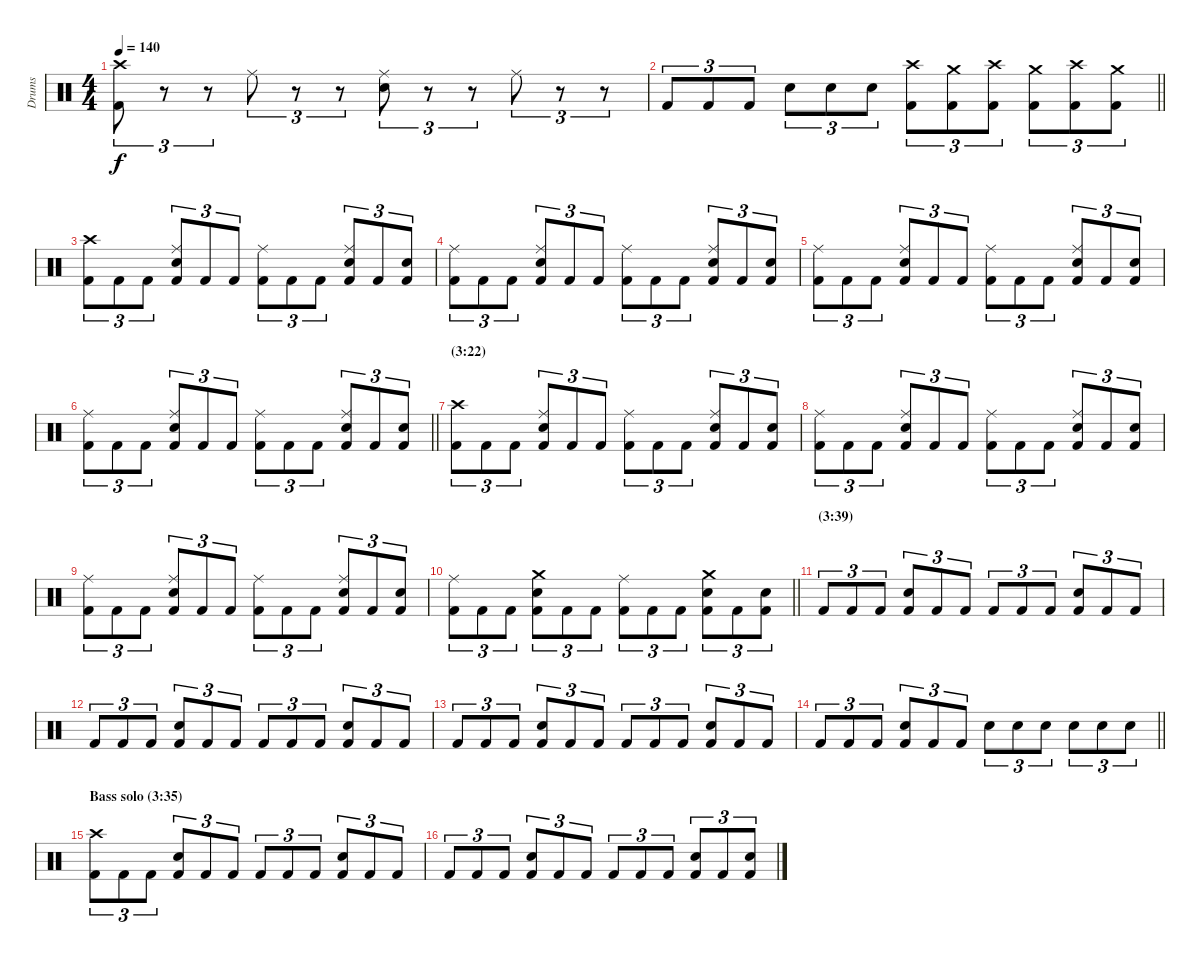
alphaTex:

\track ("Drums" "Drums") {instrument percussion}
\staff {score}
\articulation defaults
\ts (4 4)
\tempo 140
\clef neutral
\ks c
("Crash high (hit)" "Kick (hit) 2").8{tu (3 2) dy f} r.8{tu (3 2)} r.8{tu (3 2)} "Ride (middle)".8{tu (3 2)} r.8{tu (3 2)} r.8{tu (3 2)} ("Ride (middle)" "Snare (hit) 2").8{tu (3 2)} r.8{tu (3 2)} r.8{tu (3 2)} "Ride (middle)".8{tu (3 2)} r.8{tu (3 2)} r.8{tu (3 2)} |
\barLineRight lightlight "Kick (hit) 2".8{tu (3 2)} "Kick (hit) 2".8{tu (3 2)} "Kick (hit) 2".8{tu (3 2)} "Snare (hit) 2".8{tu (3 2)} "Snare (hit) 2".8{tu (3 2)} "Snare (hit) 2".8{tu (3 2)}
("Crash high (hit)" "Kick (hit) 2").8{tu (3 2)} ("Crash medium (hit)" "Kick (hit) 2").8{tu (3 2)} ("Crash high (hit)" "Kick (hit) 2").8{tu (3 2)} ("Crash medium (hit)" "Kick (hit) 2").8{tu (3 2)} ("Crash high (hit)" "Kick (hit) 2").8{tu (3 2)} ("Crash medium (hit)" "Kick (hit) 2").8{tu (3 2)} |
\section ("" "")
("Crash high (hit)" "Kick (hit) 2").8{tu (3 2)} "Kick (hit) 2".8{tu (3 2)} "Kick (hit) 2".8{tu (3 2)} ("Ride (middle)" "Snare (hit) 2" "Kick (hit) 2").8{tu (3 2)} "Kick (hit) 2".8{tu (3 2)} "Kick (hit) 2".8{tu (3 2)} ("Ride (middle)" "Kick (hit) 2").8{tu (3 2)} "Kick (hit) 2".8{tu (3 2)} "Kick (hit) 2".8{tu (3 2)} ("Ride (middle)" "Snare (hit) 2" "Kick (hit) 2").8{tu (3 2)} "Kick (hit) 2".8{tu (3 2)} ("Snare (hit) 2" "Kick (hit) 2").8{tu (3 2)} |
("Ride (middle)" "Kick (hit) 2").8{tu (3 2)} "Kick (hit) 2".8{tu (3 2)} "Kick (hit) 2".8{tu (3 2)} ("Ride (middle)" "Snare (hit) 2" "Kick (hit) 2").8{tu (3 2)} "Kick (hit) 2".8{tu (3 2)} "Kick (hit) 2".8{tu (3 2)} ("Ride (middle)" "Kick (hit) 2").8{tu (3 2)} "Kick (hit) 2".8{tu (3 2)} "Kick (hit) 2".8{tu (3 2)} ("Ride (middle)" "Snare (hit) 2" "Kick (hit) 2").8{tu (3 2)} "Kick (hit) 2".8{tu (3 2)} ("Snare (hit) 2" "Kick (hit) 2").8{tu (3 2)} |
("Ride (middle)" "Kick (hit) 2").8{tu (3 2)} "Kick (hit) 2".8{tu (3 2)} "Kick (hit) 2".8{tu (3 2)} ("Ride (middle)" "Snare (hit) 2" "Kick (hit) 2").8{tu (3 2)} "Kick (hit) 2".8{tu (3 2)} "Kick (hit) 2".8{tu (3 2)} ("Ride (middle)" "Kick (hit) 2").8{tu (3 2)} "Kick (hit) 2".8{tu (3 2)} "Kick (hit) 2".8{tu (3 2)} ("Ride (middle)" "Snare (hit) 2" "Kick (hit) 2").8{tu (3 2)} "Kick (hit) 2".8{tu (3 2)} ("Snare (hit) 2" "Kick (hit) 2").8{tu (3 2)} |
\barLineRight lightlight
("Ride (middle)" "Kick (hit) 2").8{tu (3 2)} "Kick (hit) 2".8{tu (3 2)} "Kick (hit) 2".8{tu (3 2)} ("Ride (middle)" "Snare (hit) 2" "Kick (hit) 2").8{tu (3 2)} "Kick (hit) 2".8{tu (3 2)} "Kick (hit) 2".8{tu (3 2)} ("Ride (middle)" "Kick (hit) 2").8{tu (3 2)} "Kick (hit) 2".8{tu (3 2)} "Kick (hit) 2".8{tu (3 2)} ("Ride (middle)" "Snare (hit) 2" "Kick (hit) 2").8{tu (3 2)} "Kick (hit) 2".8{tu (3 2)} ("Snare (hit) 2" "Kick (hit) 2").8{tu (3 2)} |
\section ("" "(3:22)")
("Crash high (hit)" "Kick (hit) 2").8{tu (3 2)} "Kick (hit) 2".8{tu (3 2)} "Kick (hit) 2".8{tu (3 2)} ("Ride (middle)" "Snare (hit) 2" "Kick (hit) 2").8{tu (3 2)} "Kick (hit) 2".8{tu (3 2)} "Kick (hit) 2".8{tu (3 2)} ("Ride (middle)" "Kick (hit) 2").8{tu (3 2)} "Kick (hit) 2".8{tu (3 2)} "Kick (hit) 2".8{tu (3 2)} ("Ride (middle)" "Snare (hit) 2" "Kick (hit) 2").8{tu (3 2)} "Kick (hit) 2".8{tu (3 2)} ("Snare (hit) 2" "Kick (hit) 2").8{tu (3 2)} |
("Ride (middle)" "Kick (hit) 2").8{tu (3 2)} "Kick (hit) 2".8{tu (3 2)} "Kick (hit) 2".8{tu (3 2)} ("Ride (middle)" "Snare (hit) 2" "Kick (hit) 2").8{tu (3 2)} "Kick (hit) 2".8{tu (3 2)} "Kick (hit) 2".8{tu (3 2)} ("Ride (middle)" "Kick (hit) 2").8{tu (3 2)} "Kick (hit) 2".8{tu (3 2)} "Kick (hit) 2".8{tu (3 2)} ("Ride (middle)" "Snare (hit) 2" "Kick (hit) 2").8{tu (3 2)} "Kick (hit) 2".8{tu (3 2)} ("Snare (hit) 2" "Kick (hit) 2").8{tu (3 2)} |
("Ride (middle)" "Kick (hit) 2").8{tu (3 2)} "Kick (hit) 2".8{tu (3 2)} "Kick (hit) 2".8{tu (3 2)} ("Ride (middle)" "Snare (hit) 2" "Kick (hit) 2").8{tu (3 2)} "Kick (hit) 2".8{tu (3 2)} "Kick (hit) 2".8{tu (3 2)} ("Ride (middle)" "Kick (hit) 2").8{tu (3 2)} "Kick (hit) 2".8{tu (3 2)} "Kick (hit) 2".8{tu (3 2)} ("Ride (middle)" "Snare (hit) 2" "Kick (hit) 2").8{tu (3 2)} "Kick (hit) 2".8{tu (3 2)} ("Snare (hit) 2" "Kick (hit) 2").8{tu (3 2)} |
\barLineRight lightlight
("Ride (middle)" "Kick (hit) 2").8{tu (3 2)} "Kick (hit) 2".8{tu (3 2)} "Kick (hit) 2".8{tu (3 2)} ("Crash medium (hit)" "Snare (hit) 2" "Kick (hit) 2").8{tu (3 2)} "Kick (hit) 2".8{tu (3 2)} "Kick (hit) 2".8{tu (3 2)} ("Ride (middle)" "Kick (hit) 2").8{tu (3 2)} "Kick (hit) 2".8{tu (3 2)} "Kick (hit) 2".8{tu (3 2)} ("Crash medium (hit)" "Snare (hit) 2" "Kick (hit) 2").8{tu (3 2)} "Kick (hit) 2".8{tu (3 2)} ("Snare (hit) 2" "Kick (hit) 2").8{tu (3 2)} |
\section ("" "(3:39)")
"Kick (hit) 2".8{tu (3 2)} "Kick (hit) 2".8{tu (3 2)} "Kick (hit) 2".8{tu (3 2)} ("Snare (hit) 2" "Kick (hit) 2").8{tu (3 2)} "Kick (hit) 2".8{tu (3 2)} "Kick (hit) 2".8{tu (3 2)} "Kick (hit) 2".8{tu (3 2)} "Kick (hit) 2".8{tu (3 2)} "Kick (hit) 2".8{tu (3 2)} ("Snare (hit) 2" "Kick (hit) 2").8{tu (3 2)} "Kick (hit) 2".8{tu (3 2)} "Kick (hit) 2".8{tu (3 2)} |
"Kick (hit) 2".8{tu (3 2)} "Kick (hit) 2".8{tu (3 2)} "Kick (hit) 2".8{tu (3 2)} ("Snare (hit) 2" "Kick (hit) 2").8{tu (3 2)} "Kick (hit) 2".8{tu (3 2)} "Kick (hit) 2".8{tu (3 2)} "Kick (hit) 2".8{tu (3 2)} "Kick (hit) 2".8{tu (3 2)} "Kick (hit) 2".8{tu (3 2)} ("Snare (hit) 2" "Kick (hit) 2").8{tu (3 2)} "Kick (hit) 2".8{tu (3 2)} "Kick (hit) 2".8{tu (3 2)} |
"Kick (hit) 2".8{tu (3 2)} "Kick (hit) 2".8{tu (3 2)} "Kick (hit) 2".8{tu (3 2)} ("Snare (hit) 2" "Kick (hit) 2").8{tu (3 2)} "Kick (hit) 2".8{tu (3 2)} "Kick (hit) 2".8{tu (3 2)} "Kick (hit) 2".8{tu (3 2)} "Kick (hit) 2".8{tu (3 2)} "Kick (hit) 2".8{tu (3 2)} ("Snare (hit) 2" "Kick (hit) 2").8{tu (3 2)} "Kick (hit) 2".8{tu (3 2)} "Kick (hit) 2".8{tu (3 2)} |
\barLineRight lightlight "Kick (hit) 2".8{tu (3 2)} "Kick (hit) 2".8{tu (3 2)} "Kick (hit) 2".8{tu (3 2)}
("Snare (hit) 2" "Kick (hit) 2").8{tu (3 2)} "Kick (hit) 2".8{tu (3 2)} "Kick (hit) 2".8{tu (3 2)} "Snare (hit) 2".8{tu (3 2)} "Snare (hit) 2".8{tu (3 2)} "Snare (hit) 2".8{tu (3 2)} "Snare (hit) 2".8{tu (3 2)} "Snare (hit) 2".8{tu (3 2)} "Snare (hit) 2".8{tu (3 2)} |
\section ("" "Bass solo (3:35)")
("Crash high (hit)" "Kick (hit) 2").8{tu (3 2)} "Kick (hit) 2".8{tu (3 2)} "Kick (hit) 2".8{tu (3 2)} ("Snare (hit) 2" "Kick (hit) 2").8{tu (3 2)} "Kick (hit) 2".8{tu (3 2)} "Kick (hit) 2".8{tu (3 2)} "Kick (hit) 2".8{tu (3 2)} "Kick (hit) 2".8{tu (3 2)} "Kick (hit) 2".8{tu (3 2)} ("Snare (hit) 2" "Kick (hit) 2").8{tu (3 2)} "Kick (hit) 2".8{tu (3 2)} "Kick (hit) 2".8{tu (3 2)} |
"Kick (hit) 2".8{tu (3 2)} "Kick (hit) 2".8{tu (3 2)} "Kick (hit) 2".8{tu (3 2)} ("Snare (hit) 2" "Kick (hit) 2").8{tu (3 2)} "Kick (hit) 2".8{tu (3 2)} "Kick (hit) 2".8{tu (3 2)} "Kick (hit) 2".8{tu (3 2)} "Kick (hit) 2".8{tu (3 2)} "Kick (hit) 2".8{tu (3 2)} ("Snare (hit) 2" "Kick (hit) 2").8{tu (3 2)} "Kick (hit) 2".8{tu (3 2)} ("Snare (hit) 2" "Kick (hit) 2").8{tu (3 2)}
